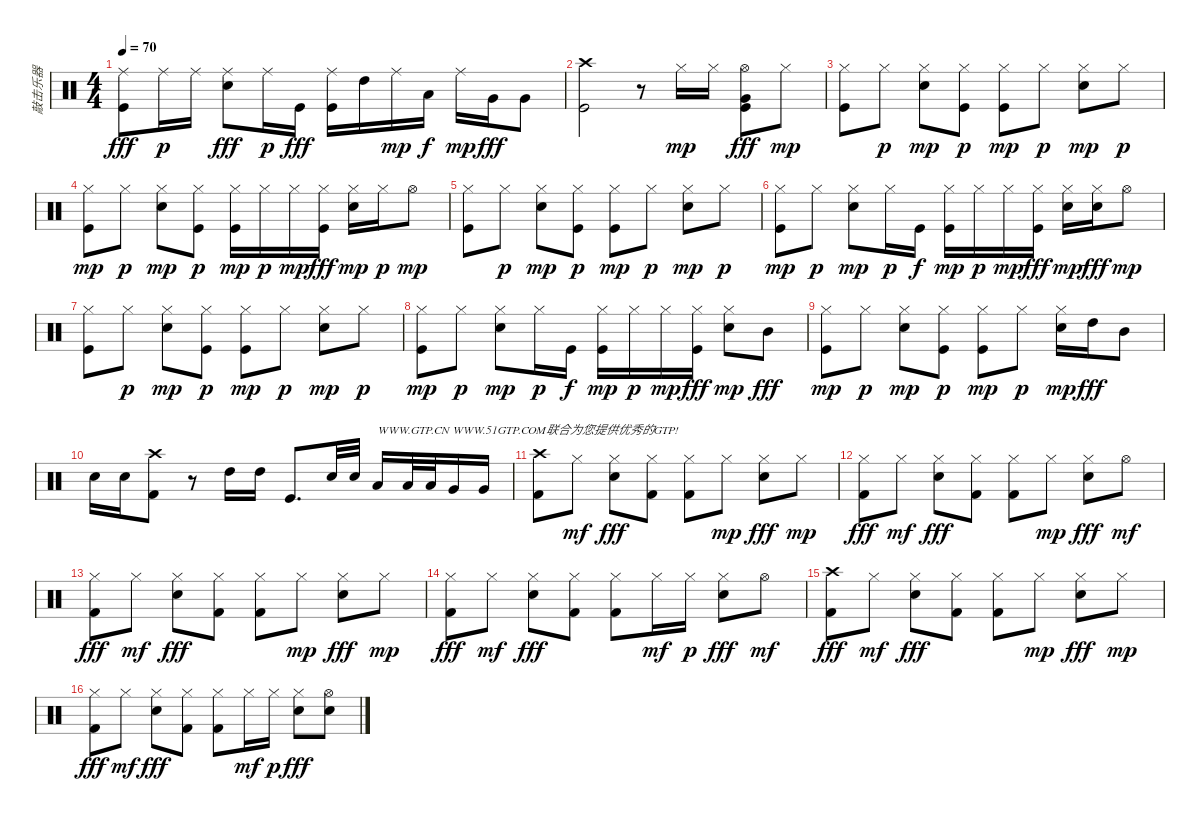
\track ("敲击乐器" "敲击乐器") {instrument percussion}
\staff {score}
\articulation defaults
\ts (4 4)
\tempo 70
\clef neutral
\ks c
("Ride (middle)" "Kick (hit)").8{dy fff} "Ride (middle)".16{dy p} "Ride (middle)".16 ("Ride (middle)" "Electric Snare (hit)").8{dy fff} "Ride (middle)".16{dy p} "Kick (hit)".16{dy fff} ("Ride (middle)" "Kick (hit)").16 "High Tom (hit)".16 "Ride (middle)".16{dy mp} "Low Tom (hit)".16{dy f} "Ride (middle)".16{dy mp} "Very Low Tom (hit)".16{dy fff} "Very Low Tom (hit)".8 |
("Crash high (hit)" "Kick (hit)").2 r.8 "Hi-Hat (closed)".16{dy mp} "Hi-Hat (closed)".16 ("Hi-Hat (open)" "Very Low Tom (hit)" "Kick (hit)").8{dy fff} "Hi-Hat (closed)".8{dy mp} |
("Hi-Hat (closed)" "Kick (hit)").8 "Hi-Hat (closed)".8{dy p} ("Hi-Hat (closed)" "Electric Snare (hit)").8{dy mp} ("Hi-Hat (closed)" "Kick (hit)").8{dy p} ("Hi-Hat (closed)" "Kick (hit)").8{dy mp} "Hi-Hat (closed)".8{dy p} ("Hi-Hat (closed)" "Electric Snare (hit)").8{dy mp} "Hi-Hat (closed)".8{dy p} |
("Hi-Hat (closed)" "Kick (hit)").8{dy mp} "Hi-Hat (closed)".8{dy p} ("Hi-Hat (closed)" "Electric Snare (hit)").8{dy mp} ("Hi-Hat (closed)" "Kick (hit)").8{dy p} ("Hi-Hat (closed)" "Kick (hit)").16{dy mp} "Hi-Hat (closed)".16{dy p} "Hi-Hat (closed)".16{dy mp} ("Hi-Hat (closed)" "Kick (hit)").16{dy fff} ("Hi-Hat (closed)" "Electric Snare (hit)").16{dy mp} "Hi-Hat (closed)".16{dy p} "Hi-Hat (open)".8{dy mp} |
("Hi-Hat (closed)" "Kick (hit)").8 "Hi-Hat (closed)".8{dy p} ("Hi-Hat (closed)" "Electric Snare (hit)").8{dy mp} ("Hi-Hat (closed)" "Kick (hit)").8{dy p} ("Hi-Hat (closed)" "Kick (hit)").8{dy mp} "Hi-Hat (closed)".8{dy p} ("Hi-Hat (closed)" "Electric Snare (hit)").8{dy mp} "Hi-Hat (closed)".8{dy p} |
("Hi-Hat (closed)" "Kick (hit)").8{dy mp} "Hi-Hat (closed)".8{dy p} ("Hi-Hat (closed)" "Electric Snare (hit)").8{dy mp} "Hi-Hat (closed)".16{dy p} "Kick (hit)".16{dy f} ("Hi-Hat (closed)" "Kick (hit)").16{dy mp} "Hi-Hat (closed)".16{dy p} "Hi-Hat (closed)".16{dy mp} ("Hi-Hat (closed)" "Kick (hit)").16{dy fff} ("Hi-Hat (closed)" "Electric Snare (hit)").16{dy mp} ("Hi-Hat (closed)" "Electric Snare (hit)").16{dy fff} "Hi-Hat (open)".8{dy mp} |
("Hi-Hat (closed)" "Kick (hit)").8 "Hi-Hat (closed)".8{dy p} ("Hi-Hat (closed)" "Electric Snare (hit)").8{dy mp} ("Hi-Hat (closed)" "Kick (hit)").8{dy p} ("Hi-Hat (closed)" "Kick (hit)").8{dy mp} "Hi-Hat (closed)".8{dy p} ("Hi-Hat (closed)" "Electric Snare (hit)").8{dy mp} "Hi-Hat (closed)".8{dy p} |
("Hi-Hat (closed)" "Kick (hit)").8{dy mp} "Hi-Hat (closed)".8{dy p} ("Hi-Hat (closed)" "Electric Snare (hit)").8{dy mp} "Hi-Hat (closed)".16{dy p} "Kick (hit)".16{dy f} ("Hi-Hat (closed)" "Kick (hit)").16{dy mp} "Hi-Hat (closed)".16{dy p} "Hi-Hat (closed)".16{dy mp} ("Hi-Hat (closed)" "Kick (hit)").16{dy fff} ("Hi-Hat (closed)" "Electric Snare (hit)").8{dy mp} "Mid Tom (hit)".8{dy fff} |
("Hi-Hat (closed)" "Kick (hit)").8{dy mp} "Hi-Hat (closed)".8{dy p} ("Hi-Hat (closed)" "Electric Snare (hit)").8{dy mp} ("Hi-Hat (closed)" "Kick (hit)").8{dy p} ("Hi-Hat (closed)" "Kick (hit)").8{dy mp} "Hi-Hat (closed)".8{dy p} ("Hi-Hat (closed)" "Electric Snare (hit)").16{dy mp} "High Tom (hit)".16{dy fff} "Mid Tom (hit)".8 |
"Electric Snare (hit)".16 "Electric Snare (hit)".16 ("Crash high (hit)" "Kick (hit) 2").8 r.8 "High Tom (hit)".16 "High Tom (hit)".16 "Kick (hit)".8{d} "Electric Snare (hit)".32 "Electric Snare (hit)".32 "Low Tom (hit)".16{txt "WWW.GTP.CN WWW.51GTP.COM联合为您提供优秀的GTP!"} "Low Tom (hit)".32 "Low Tom (hit)".32 "Very Low Tom (hit)".16 "Very Low Tom (hit)".16 |
("Crash high (hit)" "Kick (hit) 2").8 "Hi-Hat (closed)".8{dy mf} ("Hi-Hat (closed)" "Electric Snare (hit)").8{dy fff} ("Hi-Hat (closed)" "Kick (hit) 2").8 ("Hi-Hat (closed)" "Kick (hit) 2").8 "Hi-Hat (closed)".8{dy mp} ("Hi-Hat (closed)" "Electric Snare (hit)").8{dy fff} "Hi-Hat (closed)".8{dy mp} |
("Hi-Hat (closed)" "Kick (hit) 2").8{dy fff} "Hi-Hat (closed)".8{dy mf} ("Hi-Hat (closed)" "Electric Snare (hit)").8{dy fff} ("Hi-Hat (closed)" "Kick (hit) 2").8 ("Hi-Hat (closed)" "Kick (hit) 2").8 "Hi-Hat (closed)".8{dy mp} ("Hi-Hat (closed)" "Electric Snare (hit)").8{dy fff} "Hi-Hat (open)".8{dy mf} |
("Hi-Hat (closed)" "Kick (hit) 2").8{dy fff} "Hi-Hat (closed)".8{dy mf} ("Hi-Hat (closed)" "Electric Snare (hit)").8{dy fff} ("Hi-Hat (closed)" "Kick (hit) 2").8 ("Hi-Hat (closed)" "Kick (hit) 2").8 "Hi-Hat (closed)".8{dy mp} ("Hi-Hat (closed)" "Electric Snare (hit)").8{dy fff} "Hi-Hat (closed)".8{dy mp} |
("Hi-Hat (closed)" "Kick (hit) 2").8{dy fff} "Hi-Hat (closed)".8{dy mf} ("Hi-Hat (closed)" "Electric Snare (hit)").8{dy fff} ("Hi-Hat (closed)" "Kick (hit) 2").8 ("Hi-Hat (closed)" "Kick (hit) 2").8 "Hi-Hat (closed)".16{dy mf} "Hi-Hat (closed)".16{dy p} ("Hi-Hat (closed)" "Electric Snare (hit)").8{dy fff} "Hi-Hat (open)".8{dy mf} |
("Crash high (hit)" "Kick (hit) 2").8{dy fff} "Hi-Hat (closed)".8{dy mf} ("Hi-Hat (closed)" "Electric Snare (hit)").8{dy fff} ("Hi-Hat (closed)" "Kick (hit) 2").8 ("Hi-Hat (closed)" "Kick (hit) 2").8 "Hi-Hat (closed)".8{dy mp} ("Hi-Hat (closed)" "Electric Snare (hit)").8{dy fff} "Hi-Hat (closed)".8{dy mp} |
("Hi-Hat (closed)" "Kick (hit) 2").8{dy fff} "Hi-Hat (closed)".8{dy mf} ("Hi-Hat (closed)" "Electric Snare (hit)").8{dy fff} ("Hi-Hat (closed)" "Kick (hit) 2").8 ("Hi-Hat (closed)" "Kick (hit) 2").8 "Hi-Hat (closed)".16{dy mf} "Hi-Hat (closed)".16{dy p} ("Hi-Hat (closed)" "Electric Snare (hit)").8{dy fff} ("Hi-Hat (open)" "Electric Snare (hit)").8
